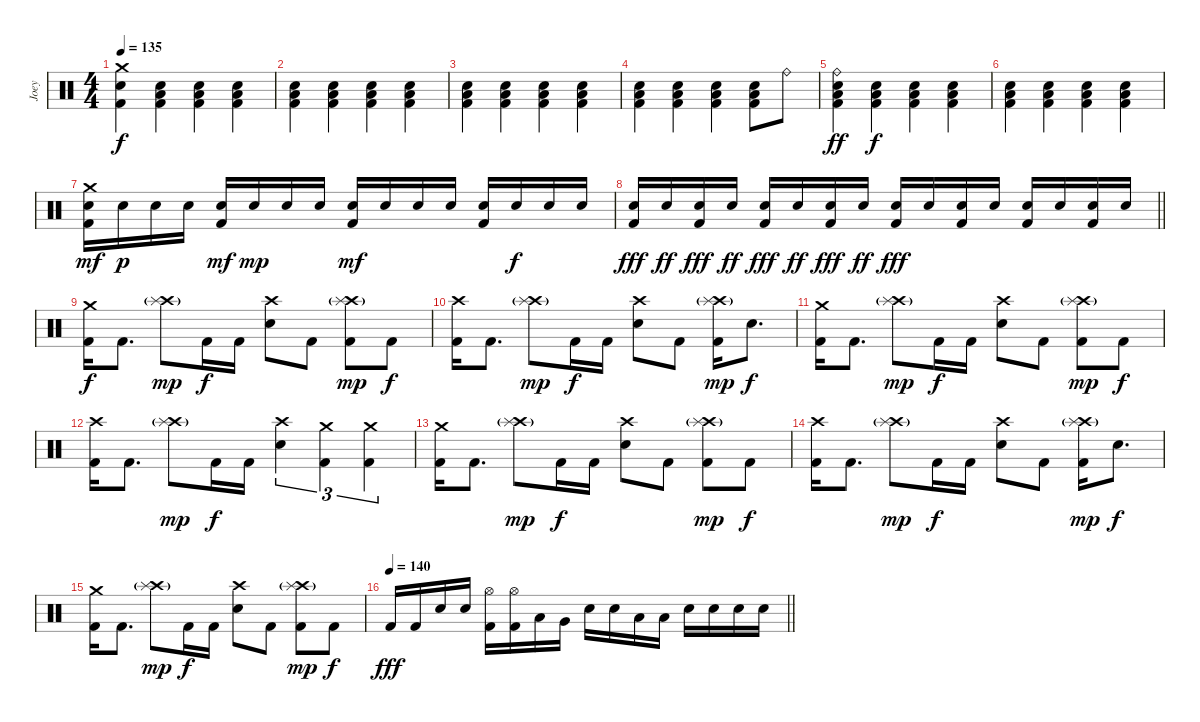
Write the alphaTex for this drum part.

\track ("Joey" "Joey") {instrument percussion}
\staff {score}
\articulation defaults
\ts (4 4)
\section ("" "")
\tempo 135
\clef neutral
\ks c
("Crash medium (hit)" "Electric Snare (hit)" "Kick (hit) 2").4{dy f} ("Low Floor Tom (hit)" "Electric Snare (hit)" "Kick (hit) 2").4 ("Low Floor Tom (hit)" "Electric Snare (hit)" "Kick (hit) 2").4 ("Low Floor Tom (hit)" "Electric Snare (hit)" "Kick (hit) 2").4 |
("Low Floor Tom (hit)" "Electric Snare (hit)" "Kick (hit) 2").4 ("Low Floor Tom (hit)" "Electric Snare (hit)" "Kick (hit) 2").4 ("Low Floor Tom (hit)" "Electric Snare (hit)" "Kick (hit) 2").4 ("Low Floor Tom (hit)" "Electric Snare (hit)" "Kick (hit) 2").4 |
("Low Floor Tom (hit)" "Electric Snare (hit)" "Kick (hit) 2").4 ("Low Floor Tom (hit)" "Electric Snare (hit)" "Kick (hit) 2").4 ("Low Floor Tom (hit)" "Electric Snare (hit)" "Kick (hit) 2").4 ("Low Floor Tom (hit)" "Electric Snare (hit)" "Kick (hit) 2").4 |
("Low Floor Tom (hit)" "Electric Snare (hit)" "Kick (hit) 2").4 ("Low Floor Tom (hit)" "Electric Snare (hit)" "Kick (hit) 2").4 ("Low Floor Tom (hit)" "Electric Snare (hit)" "Kick (hit) 2").4 ("Low Floor Tom (hit)" "Electric Snare (hit)" "Kick (hit) 2").8 "Ride (bell)".8 |
("Ride (bell)" "Low Floor Tom (hit)" "Electric Snare (hit)" "Kick (hit) 2").4{dy ff} ("Low Floor Tom (hit)" "Electric Snare (hit)" "Kick (hit) 2").4{dy f} ("Low Floor Tom (hit)" "Electric Snare (hit)" "Kick (hit) 2").4 ("Low Floor Tom (hit)" "Electric Snare (hit)" "Kick (hit) 2").4 |
("Low Floor Tom (hit)" "Electric Snare (hit)" "Kick (hit) 2").4 ("Low Floor Tom (hit)" "Electric Snare (hit)" "Kick (hit) 2").4 ("Low Floor Tom (hit)" "Electric Snare (hit)" "Kick (hit) 2").4 ("Low Floor Tom (hit)" "Electric Snare (hit)" "Kick (hit) 2").4 |
("Crash medium (hit)" "Electric Snare (hit)" "Kick (hit) 2").16{dy mf} "Electric Snare (hit)".16{dy p} "Electric Snare (hit)".16 "Electric Snare (hit)".16 ("Electric Snare (hit)" "Kick (hit) 2").16{dy mf} "Electric Snare (hit)".16{dy mp} "Electric Snare (hit)".16 "Electric Snare (hit)".16 ("Electric Snare (hit)" "Kick (hit) 2").16{dy mf} "Electric Snare (hit)".16 "Electric Snare (hit)".16 "Electric Snare (hit)".16 ("Electric Snare (hit)" "Kick (hit) 2").16 "Electric Snare (hit)".16{dy f} "Electric Snare (hit)".16 "Electric Snare (hit)".16 |
\barLineRight lightlight
("Electric Snare (hit)" "Kick (hit) 2").16{dy fff} "Electric Snare (hit)".16{dy ff} ("Electric Snare (hit)" "Kick (hit) 2").16{dy fff} "Electric Snare (hit)".16{dy ff} ("Electric Snare (hit)" "Kick (hit) 2").16{dy fff} "Electric Snare (hit)".16{dy ff} ("Electric Snare (hit)" "Kick (hit) 2").16{dy fff} "Electric Snare (hit)".16{dy ff} ("Electric Snare (hit)" "Kick (hit) 2").16{dy fff} "Electric Snare (hit)".16 ("Electric Snare (hit)" "Kick (hit) 2").16 "Electric Snare (hit)".16 ("Electric Snare (hit)" "Kick (hit) 2").16 "Electric Snare (hit)".16 ("Electric Snare (hit)" "Kick (hit) 2").16 "Electric Snare (hit)".16 |
("Crash medium (hit)" "Kick (hit) 2").16{dy f} "Kick (hit) 2".8{d} ("Crash high (hit)" "Splash (hit)"{g}).8{dy mp} "Kick (hit) 2".16{dy f} "Kick (hit) 2".16 ("Crash high (hit)" "Electric Snare (hit)").8 "Kick (hit) 2".8 ("Crash high (hit)" "Splash (hit)"{g} "Kick (hit) 2").8{dy mp} "Kick (hit) 2".8{dy f} |
("Crash high (hit)" "Kick (hit) 2").16 "Kick (hit) 2".8{d} ("Crash high (hit)" "Splash (hit)"{g}).8{dy mp} "Kick (hit) 2".16{dy f} "Kick (hit) 2".16 ("Crash high (hit)" "Electric Snare (hit)").8 "Kick (hit) 2".8 ("Crash high (hit)" "Splash (hit)"{g} "Kick (hit) 2").16{dy mp} "Electric Snare (hit)".8{d dy f} |
("Crash medium (hit)" "Kick (hit) 2").16 "Kick (hit) 2".8{d} ("Crash high (hit)" "Splash (hit)"{g}).8{dy mp} "Kick (hit) 2".16{dy f} "Kick (hit) 2".16 ("Crash high (hit)" "Electric Snare (hit)").8 "Kick (hit) 2".8 ("Crash high (hit)" "Splash (hit)"{g} "Kick (hit) 2").8{dy mp} "Kick (hit) 2".8{dy f} |
("Crash high (hit)" "Kick (hit) 2").16 "Kick (hit) 2".8{d} ("Crash high (hit)" "Splash (hit)"{g}).8{dy mp} "Kick (hit) 2".16{dy f} "Kick (hit) 2".16 ("Crash high (hit)" "Electric Snare (hit)").4{tu (3 2)} ("Crash medium (hit)" "Kick (hit) 2").4{tu (3 2)} ("Crash medium (hit)" "Kick (hit) 2").4{tu (3 2)} |
("Crash medium (hit)" "Kick (hit) 2").16 "Kick (hit) 2".8{d} ("Crash high (hit)" "Splash (hit)"{g}).8{dy mp} "Kick (hit) 2".16{dy f} "Kick (hit) 2".16 ("Crash high (hit)" "Electric Snare (hit)").8 "Kick (hit) 2".8 ("Crash high (hit)" "Splash (hit)"{g} "Kick (hit) 2").8{dy mp} "Kick (hit) 2".8{dy f} |
("Crash high (hit)" "Kick (hit) 2").16 "Kick (hit) 2".8{d} ("Crash high (hit)" "Splash (hit)"{g}).8{dy mp} "Kick (hit) 2".16{dy f} "Kick (hit) 2".16 ("Crash high (hit)" "Electric Snare (hit)").8 "Kick (hit) 2".8 ("Crash high (hit)" "Splash (hit)"{g} "Kick (hit) 2").16{dy mp} "Electric Snare (hit)".8{d dy f} |
("Crash medium (hit)" "Kick (hit) 2").16 "Kick (hit) 2".8{d} ("Crash high (hit)" "Splash (hit)"{g}).8{dy mp} "Kick (hit) 2".16{dy f} "Kick (hit) 2".16 ("Crash high (hit)" "Electric Snare (hit)").8 "Kick (hit) 2".8 ("Crash high (hit)" "Splash (hit)"{g} "Kick (hit) 2").8{dy mp} "Kick (hit) 2".8{dy f} |
\tempo 135
\tempo 140
\barLineRight lightlight "Kick (hit) 2".16{dy fff} "Kick (hit) 2".16 "Electric Snare (hit)".16 "Electric Snare (hit)".16
("Hi-Hat (open)" "Kick (hit) 2").16 ("Hi-Hat (open)" "Kick (hit) 2").16 "Low Tom (hit)".16 "Very Low Tom (hit)".16 "Electric Snare (hit)".16 "Electric Snare (hit)".16 "Low Tom (hit)".16 "Low Tom (hit)".16 "Electric Snare (hit)".16 "Electric Snare (hit)".16 "Electric Snare (hit)".16 "Electric Snare (hit)".16
